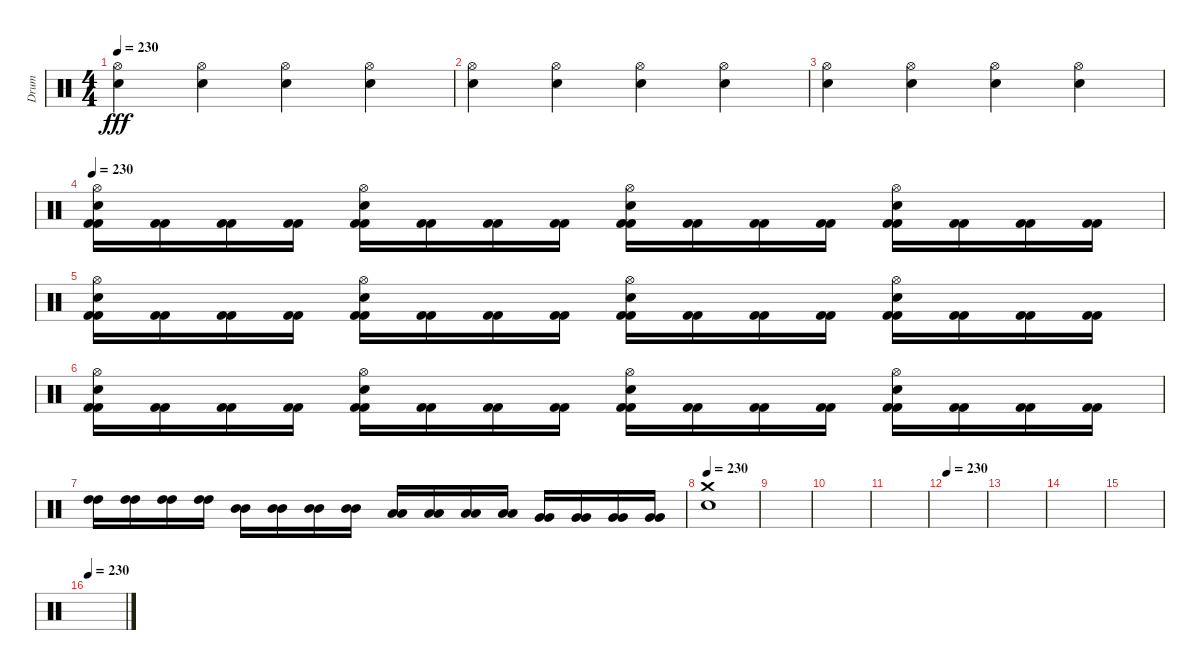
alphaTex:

\track ("Drum" "Drum") {instrument percussion}
\staff {score}
\articulation defaults
\ts (4 4)
\tempo 230
\clef neutral
\ks c
("Hi-Hat (open)" "Electric Snare (hit)").4{dy fff} ("Hi-Hat (open)" "Electric Snare (hit)").4 ("Hi-Hat (open)" "Electric Snare (hit)").4 ("Hi-Hat (open)" "Electric Snare (hit)").4 |
("Hi-Hat (open)" "Electric Snare (hit)").4 ("Hi-Hat (open)" "Electric Snare (hit)").4 ("Hi-Hat (open)" "Electric Snare (hit)").4 ("Hi-Hat (open)" "Electric Snare (hit)").4 |
("Hi-Hat (open)" "Electric Snare (hit)").4 ("Hi-Hat (open)" "Electric Snare (hit)").4 ("Hi-Hat (open)" "Electric Snare (hit)").4 ("Hi-Hat (open)" "Electric Snare (hit)").4 |
\tempo 230
("Hi-Hat (open)" "Electric Snare (hit)" "Kick (hit) 2" "Kick (hit) 2").16 ("Kick (hit) 2" "Kick (hit) 2").16 ("Kick (hit) 2" "Kick (hit) 2").16 ("Kick (hit) 2" "Kick (hit) 2").16 ("Hi-Hat (open)" "Electric Snare (hit)" "Kick (hit) 2" "Kick (hit) 2").16 ("Kick (hit) 2" "Kick (hit) 2").16 ("Kick (hit) 2" "Kick (hit) 2").16 ("Kick (hit) 2" "Kick (hit) 2").16 ("Hi-Hat (open)" "Electric Snare (hit)" "Kick (hit) 2" "Kick (hit) 2").16 ("Kick (hit) 2" "Kick (hit) 2").16 ("Kick (hit) 2" "Kick (hit) 2").16 ("Kick (hit) 2" "Kick (hit) 2").16 ("Hi-Hat (open)" "Electric Snare (hit)" "Kick (hit) 2" "Kick (hit) 2").16 ("Kick (hit) 2" "Kick (hit) 2").16 ("Kick (hit) 2" "Kick (hit) 2").16 ("Kick (hit) 2" "Kick (hit) 2").16 |
("Hi-Hat (open)" "Electric Snare (hit)" "Kick (hit) 2" "Kick (hit) 2").16 ("Kick (hit) 2" "Kick (hit) 2").16 ("Kick (hit) 2" "Kick (hit) 2").16 ("Kick (hit) 2" "Kick (hit) 2").16 ("Hi-Hat (open)" "Electric Snare (hit)" "Kick (hit) 2" "Kick (hit) 2").16 ("Kick (hit) 2" "Kick (hit) 2").16 ("Kick (hit) 2" "Kick (hit) 2").16 ("Kick (hit) 2" "Kick (hit) 2").16 ("Hi-Hat (open)" "Electric Snare (hit)" "Kick (hit) 2" "Kick (hit) 2").16 ("Kick (hit) 2" "Kick (hit) 2").16 ("Kick (hit) 2" "Kick (hit) 2").16 ("Kick (hit) 2" "Kick (hit) 2").16 ("Hi-Hat (open)" "Electric Snare (hit)" "Kick (hit) 2" "Kick (hit) 2").16 ("Kick (hit) 2" "Kick (hit) 2").16 ("Kick (hit) 2" "Kick (hit) 2").16 ("Kick (hit) 2" "Kick (hit) 2").16 |
("Hi-Hat (open)" "Electric Snare (hit)" "Kick (hit) 2" "Kick (hit) 2").16 ("Kick (hit) 2" "Kick (hit) 2").16 ("Kick (hit) 2" "Kick (hit) 2").16 ("Kick (hit) 2" "Kick (hit) 2").16 ("Hi-Hat (open)" "Electric Snare (hit)" "Kick (hit) 2" "Kick (hit) 2").16 ("Kick (hit) 2" "Kick (hit) 2").16 ("Kick (hit) 2" "Kick (hit) 2").16 ("Kick (hit) 2" "Kick (hit) 2").16 ("Hi-Hat (open)" "Electric Snare (hit)" "Kick (hit) 2" "Kick (hit) 2").16 ("Kick (hit) 2" "Kick (hit) 2").16 ("Kick (hit) 2" "Kick (hit) 2").16 ("Kick (hit) 2" "Kick (hit) 2").16 ("Hi-Hat (open)" "Electric Snare (hit)" "Kick (hit) 2" "Kick (hit) 2").16 ("Kick (hit) 2" "Kick (hit) 2").16 ("Kick (hit) 2" "Kick (hit) 2").16 ("Kick (hit) 2" "Kick (hit) 2").16 |
("High Tom (hit)" "High Tom (hit)").16 ("High Tom (hit)" "High Tom (hit)").16 ("High Tom (hit)" "High Tom (hit)").16 ("High Tom (hit)" "High Tom (hit)").16 ("Mid Tom (hit)" "Mid Tom (hit)").16 ("Mid Tom (hit)" "Mid Tom (hit)").16 ("Mid Tom (hit)" "Mid Tom (hit)").16 ("Mid Tom (hit)" "Mid Tom (hit)").16 ("Low Tom (hit)" "Low Tom (hit)").16 ("Low Tom (hit)" "Low Tom (hit)").16 ("Low Tom (hit)" "Low Tom (hit)").16 ("Low Tom (hit)" "Low Tom (hit)").16 ("Very Low Tom (hit)" "Very Low Tom (hit)").16 ("Very Low Tom (hit)" "Very Low Tom (hit)").16 ("Very Low Tom (hit)" "Very Low Tom (hit)").16 ("Very Low Tom (hit)" "Very Low Tom (hit)").16 |
\tempo 230
("Crash medium (hit)" "Electric Snare (hit)").1 |
|
|
|
\tempo 230
|
|
|
|
\tempo 230
